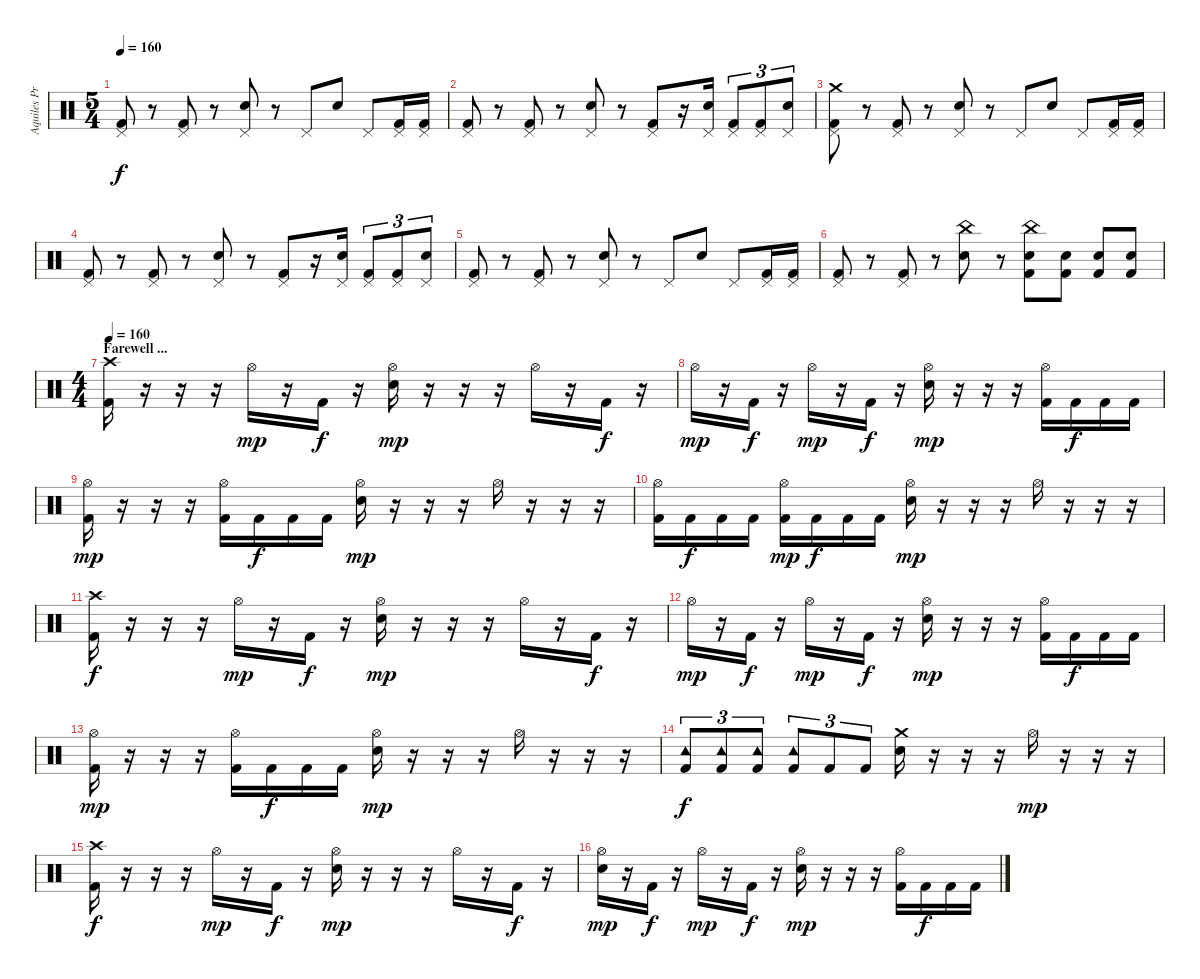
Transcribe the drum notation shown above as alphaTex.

\track ("Aquiles Priester" "Aquiles Pr") {instrument percussion}
\staff {score}
\articulation defaults
\ts (5 4)
\tempo 160
\clef neutral
\ks c
("Pedal Hi-Hat (hit)" "Kick (hit) 2").8{dy f} r.8 ("Pedal Hi-Hat (hit)" "Kick (hit) 2").8 r.8 ("Pedal Hi-Hat (hit)" "Snare (hit) 2").8 r.8 "Pedal Hi-Hat (hit)".8 "Snare (hit) 2".8 "Pedal Hi-Hat (hit)".8 ("Pedal Hi-Hat (hit)" "Kick (hit) 2").16 ("Pedal Hi-Hat (hit)" "Kick (hit) 2").16 |
("Pedal Hi-Hat (hit)" "Kick (hit) 2").8 r.8 ("Pedal Hi-Hat (hit)" "Kick (hit) 2").8 r.8 ("Pedal Hi-Hat (hit)" "Snare (hit) 2").8 r.8 ("Pedal Hi-Hat (hit)" "Kick (hit) 2").8 r.16 ("Pedal Hi-Hat (hit)" "Snare (hit) 2").16 ("Pedal Hi-Hat (hit)" "Kick (hit) 2").8{tu (3 2)} ("Pedal Hi-Hat (hit)" "Kick (hit) 2").8{tu (3 2)} ("Pedal Hi-Hat (hit)" "Snare (hit) 2").8{tu (3 2)} |
("Crash medium (hit)" "Pedal Hi-Hat (hit)" "Kick (hit) 2").8 r.8 ("Pedal Hi-Hat (hit)" "Kick (hit) 2").8 r.8 ("Pedal Hi-Hat (hit)" "Snare (hit) 2").8 r.8 "Pedal Hi-Hat (hit)".8 "Snare (hit) 2".8 "Pedal Hi-Hat (hit)".8 ("Pedal Hi-Hat (hit)" "Kick (hit) 2").16 ("Pedal Hi-Hat (hit)" "Kick (hit) 2").16 |
("Pedal Hi-Hat (hit)" "Kick (hit) 2").8 r.8 ("Pedal Hi-Hat (hit)" "Kick (hit) 2").8 r.8 ("Pedal Hi-Hat (hit)" "Snare (hit) 2").8 r.8 ("Pedal Hi-Hat (hit)" "Kick (hit) 2").8 r.16 ("Pedal Hi-Hat (hit)" "Snare (hit) 2").16 ("Pedal Hi-Hat (hit)" "Kick (hit) 2").8{tu (3 2)} ("Pedal Hi-Hat (hit)" "Kick (hit) 2").8{tu (3 2)} ("Pedal Hi-Hat (hit)" "Snare (hit) 2").8{tu (3 2)} |
("Pedal Hi-Hat (hit)" "Kick (hit) 2").8 r.8 ("Pedal Hi-Hat (hit)" "Kick (hit) 2").8 r.8 ("Pedal Hi-Hat (hit)" "Snare (hit) 2").8 r.8 "Pedal Hi-Hat (hit)".8 "Snare (hit) 2".8 "Pedal Hi-Hat (hit)".8 ("Pedal Hi-Hat (hit)" "Kick (hit) 2").16 ("Pedal Hi-Hat (hit)" "Kick (hit) 2").16 |
("Pedal Hi-Hat (hit)" "Kick (hit) 2").8 r.8 ("Pedal Hi-Hat (hit)" "Kick (hit) 2").8 r.8 ("China (hit)" "Snare (hit) 2").8 r.8 ("China (hit)" "Snare (hit) 2" "Kick (hit) 2").8 ("Snare (hit) 2" "Kick (hit) 2").8 ("Snare (hit) 2" "Kick (hit) 2").8 ("Snare (hit) 2" "Kick (hit) 2").8 |
\ts (4 4)
\section ("" "Farewell ...")
\tempo 160
("Crash high (hit)" "Kick (hit) 2").16 r.16 r.16 r.16 "Hi-Hat (open)".16{dy mp} r.16 "Kick (hit) 2".16{dy f} r.16 ("Hi-Hat (open)" "Snare (hit) 2").16{dy mp} r.16 r.16 r.16 "Hi-Hat (open)".16 r.16 "Kick (hit) 2".16{dy f} r.16 |
"Hi-Hat (open)".16{dy mp} r.16 "Kick (hit) 2".16{dy f} r.16 "Hi-Hat (open)".16{dy mp} r.16 "Kick (hit) 2".16{dy f} r.16 ("Hi-Hat (open)" "Snare (hit) 2").16{dy mp} r.16 r.16 r.16 ("Hi-Hat (open)" "Kick (hit) 2").16 "Kick (hit) 2".16{dy f} "Kick (hit) 2".16 "Kick (hit) 2".16 |
("Hi-Hat (open)" "Kick (hit) 2").16{dy mp} r.16 r.16 r.16 ("Hi-Hat (open)" "Kick (hit) 2").16 "Kick (hit) 2".16{dy f} "Kick (hit) 2".16 "Kick (hit) 2".16 ("Hi-Hat (open)" "Snare (hit) 2").16{dy mp} r.16 r.16 r.16 "Hi-Hat (open)".16 r.16 r.16 r.16 |
("Hi-Hat (open)" "Kick (hit) 2").16 "Kick (hit) 2".16{dy f} "Kick (hit) 2".16 "Kick (hit) 2".16 ("Hi-Hat (open)" "Kick (hit) 2").16{dy mp} "Kick (hit) 2".16{dy f} "Kick (hit) 2".16 "Kick (hit) 2".16 ("Hi-Hat (open)" "Snare (hit) 2").16{dy mp} r.16 r.16 r.16 "Hi-Hat (open)".16 r.16 r.16 r.16 |
("Crash high (hit)" "Kick (hit) 2").16{dy f} r.16 r.16 r.16 "Hi-Hat (open)".16{dy mp} r.16 "Kick (hit) 2".16{dy f} r.16 ("Hi-Hat (open)" "Snare (hit) 2").16{dy mp} r.16 r.16 r.16 "Hi-Hat (open)".16 r.16 "Kick (hit) 2".16{dy f} r.16 |
"Hi-Hat (open)".16{dy mp} r.16 "Kick (hit) 2".16{dy f} r.16 "Hi-Hat (open)".16{dy mp} r.16 "Kick (hit) 2".16{dy f} r.16 ("Hi-Hat (open)" "Snare (hit) 2").16{dy mp} r.16 r.16 r.16 ("Hi-Hat (open)" "Kick (hit) 2").16 "Kick (hit) 2".16{dy f} "Kick (hit) 2".16 "Kick (hit) 2".16 |
("Hi-Hat (open)" "Kick (hit) 2").16{dy mp} r.16 r.16 r.16 ("Hi-Hat (open)" "Kick (hit) 2").16 "Kick (hit) 2".16{dy f} "Kick (hit) 2".16 "Kick (hit) 2".16 ("Hi-Hat (open)" "Snare (hit) 2").16{dy mp} r.16 r.16 r.16 "Hi-Hat (open)".16 r.16 r.16 r.16 |
("Tambourine (hit)" "Kick (hit) 2").8{tu (3 2) dy f} ("Tambourine (hit)" "Kick (hit) 2").8{tu (3 2)} ("Tambourine (hit)" "Kick (hit) 2").8{tu (3 2)} ("Tambourine (hit)" "Kick (hit) 2").8{tu (3 2)} "Kick (hit) 2".8{tu (3 2)} "Kick (hit) 2".8{tu (3 2)} ("Crash medium (hit)" "Snare (hit) 2").16 r.16 r.16 r.16 "Hi-Hat (open)".16{dy mp} r.16 r.16 r.16 |
("Crash high (hit)" "Kick (hit) 2").16{dy f} r.16 r.16 r.16 "Hi-Hat (open)".16{dy mp} r.16 "Kick (hit) 2".16{dy f} r.16 ("Hi-Hat (open)" "Snare (hit) 2").16{dy mp} r.16 r.16 r.16 "Hi-Hat (open)".16 r.16 "Kick (hit) 2".16{dy f} r.16 |
("Hi-Hat (open)" "Snare (hit) 2").16{dy mp} r.16 "Kick (hit) 2".16{dy f} r.16 "Hi-Hat (open)".16{dy mp} r.16 "Kick (hit) 2".16{dy f} r.16 ("Hi-Hat (open)" "Snare (hit) 2").16{dy mp} r.16 r.16 r.16 ("Hi-Hat (open)" "Kick (hit) 2").16 "Kick (hit) 2".16{dy f} "Kick (hit) 2".16 "Kick (hit) 2".16
